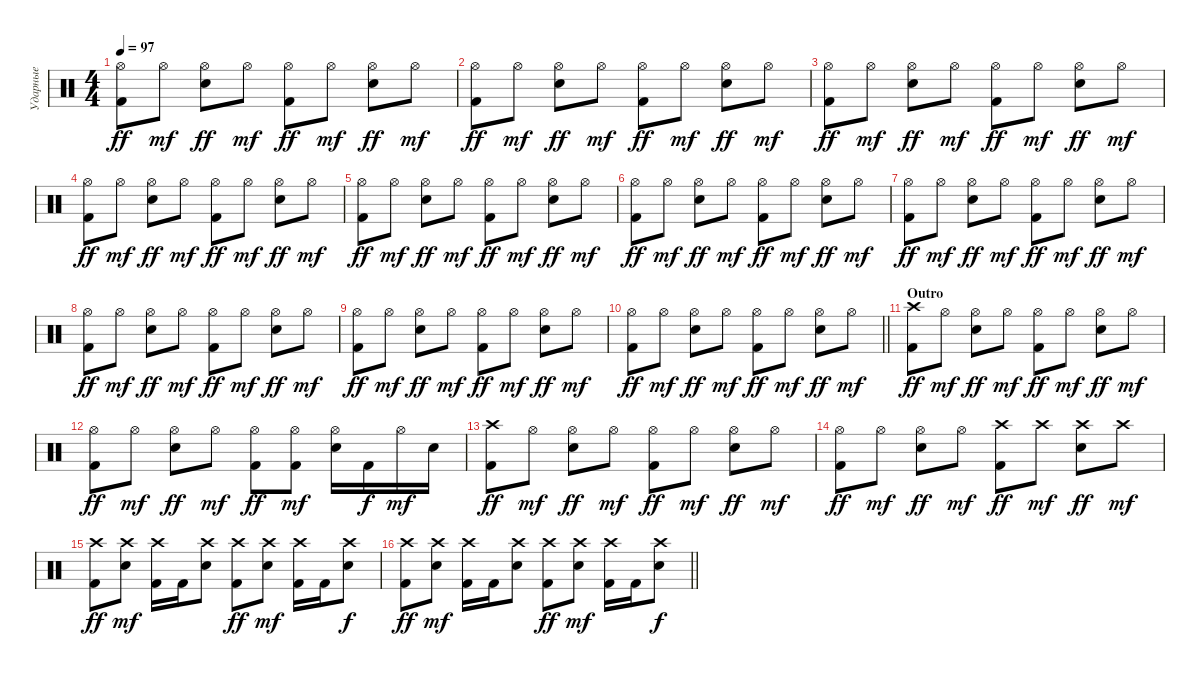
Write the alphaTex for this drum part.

\track ("Ударные" "Ударные") {instrument percussion}
\staff {score}
\articulation defaults
\ts (4 4)
\tempo 97
\clef neutral
\ks c
("Hi-Hat (open)" "Kick (hit) 2").8{dy ff} "Hi-Hat (open)".8{dy mf} ("Hi-Hat (open)" "Snare (hit) 2").8{dy ff} "Hi-Hat (open)".8{dy mf} ("Hi-Hat (open)" "Kick (hit) 2").8{dy ff} "Hi-Hat (open)".8{dy mf} ("Hi-Hat (open)" "Snare (hit) 2").8{dy ff} "Hi-Hat (open)".8{dy mf} |
("Hi-Hat (open)" "Kick (hit) 2").8{dy ff} "Hi-Hat (open)".8{dy mf} ("Hi-Hat (open)" "Snare (hit) 2").8{dy ff} "Hi-Hat (open)".8{dy mf} ("Hi-Hat (open)" "Kick (hit) 2").8{dy ff} "Hi-Hat (open)".8{dy mf} ("Hi-Hat (open)" "Snare (hit) 2").8{dy ff} "Hi-Hat (open)".8{dy mf} |
("Hi-Hat (open)" "Kick (hit) 2").8{dy ff} "Hi-Hat (open)".8{dy mf} ("Hi-Hat (open)" "Snare (hit) 2").8{dy ff} "Hi-Hat (open)".8{dy mf} ("Hi-Hat (open)" "Kick (hit) 2").8{dy ff} "Hi-Hat (open)".8{dy mf} ("Hi-Hat (open)" "Snare (hit) 2").8{dy ff} "Hi-Hat (open)".8{dy mf} |
("Hi-Hat (open)" "Kick (hit) 2").8{dy ff} "Hi-Hat (open)".8{dy mf} ("Hi-Hat (open)" "Snare (hit) 2").8{dy ff} "Hi-Hat (open)".8{dy mf} ("Hi-Hat (open)" "Kick (hit) 2").8{dy ff} "Hi-Hat (open)".8{dy mf} ("Hi-Hat (open)" "Snare (hit) 2").8{dy ff} "Hi-Hat (open)".8{dy mf} |
("Hi-Hat (open)" "Kick (hit) 2").8{dy ff} "Hi-Hat (open)".8{dy mf} ("Hi-Hat (open)" "Snare (hit) 2").8{dy ff} "Hi-Hat (open)".8{dy mf} ("Hi-Hat (open)" "Kick (hit) 2").8{dy ff} "Hi-Hat (open)".8{dy mf} ("Hi-Hat (open)" "Snare (hit) 2").8{dy ff} "Hi-Hat (open)".8{dy mf} |
("Hi-Hat (open)" "Kick (hit) 2").8{dy ff} "Hi-Hat (open)".8{dy mf} ("Hi-Hat (open)" "Snare (hit) 2").8{dy ff} "Hi-Hat (open)".8{dy mf} ("Hi-Hat (open)" "Kick (hit) 2").8{dy ff} "Hi-Hat (open)".8{dy mf} ("Hi-Hat (open)" "Snare (hit) 2").8{dy ff} "Hi-Hat (open)".8{dy mf} |
("Hi-Hat (open)" "Kick (hit) 2").8{dy ff} "Hi-Hat (open)".8{dy mf} ("Hi-Hat (open)" "Snare (hit) 2").8{dy ff} "Hi-Hat (open)".8{dy mf} ("Hi-Hat (open)" "Kick (hit) 2").8{dy ff} "Hi-Hat (open)".8{dy mf} ("Hi-Hat (open)" "Snare (hit) 2").8{dy ff} "Hi-Hat (open)".8{dy mf} |
("Hi-Hat (open)" "Kick (hit) 2").8{dy ff} "Hi-Hat (open)".8{dy mf} ("Hi-Hat (open)" "Snare (hit) 2").8{dy ff} "Hi-Hat (open)".8{dy mf} ("Hi-Hat (open)" "Kick (hit) 2").8{dy ff} "Hi-Hat (open)".8{dy mf} ("Hi-Hat (open)" "Snare (hit) 2").8{dy ff} "Hi-Hat (open)".8{dy mf} |
("Hi-Hat (open)" "Kick (hit) 2").8{dy ff} "Hi-Hat (open)".8{dy mf} ("Hi-Hat (open)" "Snare (hit) 2").8{dy ff} "Hi-Hat (open)".8{dy mf} ("Hi-Hat (open)" "Kick (hit) 2").8{dy ff} "Hi-Hat (open)".8{dy mf} ("Hi-Hat (open)" "Snare (hit) 2").8{dy ff} "Hi-Hat (open)".8{dy mf} |
\barLineRight lightlight
("Hi-Hat (open)" "Kick (hit) 2").8{dy ff} "Hi-Hat (open)".8{dy mf} ("Hi-Hat (open)" "Snare (hit) 2").8{dy ff} "Hi-Hat (open)".8{dy mf} ("Hi-Hat (open)" "Kick (hit) 2").8{dy ff} "Hi-Hat (open)".8{dy mf} ("Hi-Hat (open)" "Snare (hit) 2").8{dy ff} "Hi-Hat (open)".8{dy mf} |
\section ("" "Outro")
("Crash high (hit)" "Kick (hit) 2").8{dy ff} "Hi-Hat (open)".8{dy mf} ("Hi-Hat (open)" "Snare (hit) 2").8{dy ff} "Hi-Hat (open)".8{dy mf} ("Hi-Hat (open)" "Kick (hit) 2").8{dy ff} "Hi-Hat (open)".8{dy mf} ("Hi-Hat (open)" "Snare (hit) 2").8{dy ff} "Hi-Hat (open)".8{dy mf} |
("Hi-Hat (open)" "Kick (hit) 2").8{dy ff} "Hi-Hat (open)".8{dy mf} ("Hi-Hat (open)" "Snare (hit) 2").8{dy ff} "Hi-Hat (open)".8{dy mf} ("Hi-Hat (open)" "Kick (hit) 2").8{dy ff} ("Hi-Hat (open)" "Kick (hit) 2").8{dy mf} ("Hi-Hat (open)" "Snare (hit) 2").16 "Kick (hit) 2".16{dy f} "Hi-Hat (open)".16{dy mf} "Snare (hit) 2".16 |
("Crash high (hit)" "Kick (hit) 2").8{dy ff} "Hi-Hat (open)".8{dy mf} ("Hi-Hat (open)" "Snare (hit) 2").8{dy ff} "Hi-Hat (open)".8{dy mf} ("Hi-Hat (open)" "Kick (hit) 2").8{dy ff} "Hi-Hat (open)".8{dy mf} ("Hi-Hat (open)" "Snare (hit) 2").8{dy ff} "Hi-Hat (open)".8{dy mf} |
("Hi-Hat (open)" "Kick (hit) 2").8{dy ff} "Hi-Hat (open)".8{dy mf} ("Hi-Hat (open)" "Snare (hit) 2").8{dy ff} "Hi-Hat (open)".8{dy mf} ("Crash high (hit)" "Kick (hit) 2").8{dy ff} "Crash high (hit)".8{dy mf} ("Crash high (hit)" "Snare (hit) 2").8{dy ff} "Crash high (hit)".8{dy mf} |
("Crash high (hit)" "Kick (hit) 2").8{dy ff} ("Crash high (hit)" "Snare (hit) 2").8{dy mf} ("Crash high (hit)" "Kick (hit) 2").16 "Kick (hit) 2".16 ("Crash high (hit)" "Snare (hit) 2").8 ("Crash high (hit)" "Kick (hit) 2").8{dy ff} ("Crash high (hit)" "Snare (hit) 2").8{dy mf} ("Crash high (hit)" "Kick (hit) 2").16 "Kick (hit) 2".16 ("Crash high (hit)" "Snare (hit) 2").8{dy f} |
\barLineRight lightlight
("Crash high (hit)" "Kick (hit) 2").8{dy ff} ("Crash high (hit)" "Snare (hit) 2").8{dy mf} ("Crash high (hit)" "Kick (hit) 2").16 "Kick (hit) 2".16 ("Crash high (hit)" "Snare (hit) 2").8 ("Crash high (hit)" "Kick (hit) 2").8{dy ff} ("Crash high (hit)" "Snare (hit) 2").8{dy mf} ("Crash high (hit)" "Kick (hit) 2").16 "Kick (hit) 2".16 ("Crash high (hit)" "Snare (hit) 2").8{dy f}
